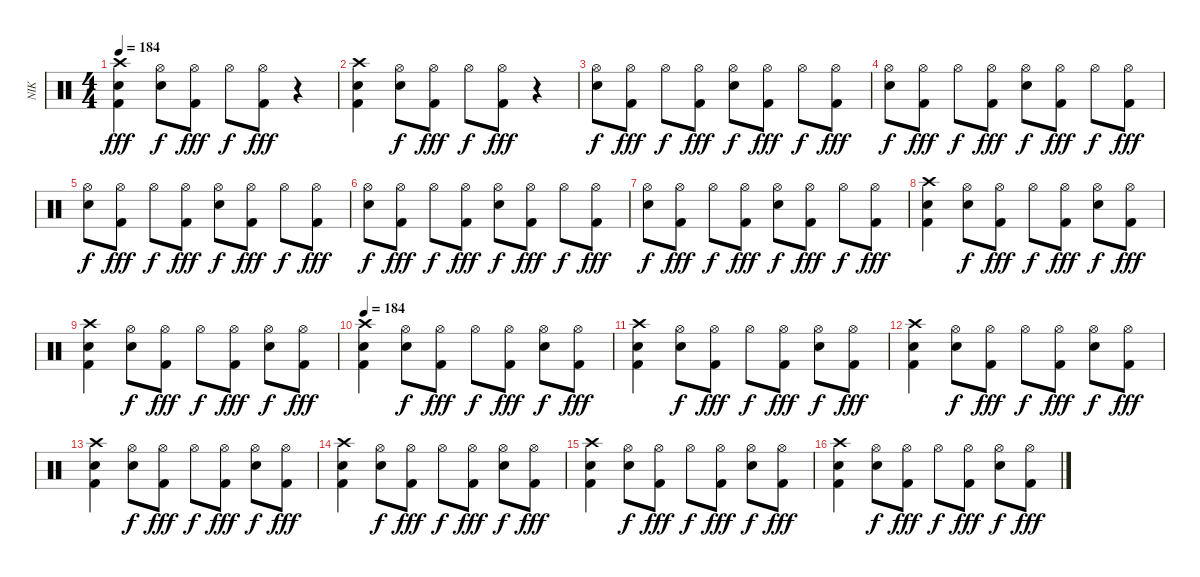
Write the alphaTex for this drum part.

\track ("NIK" "NIK") {instrument percussion}
\staff {score}
\articulation defaults
\ts (4 4)
\tempo 184
\clef neutral
\ks c
("Crash high (hit)" "Snare (hit) 2" "Kick (hit) 2").4{dy fff} ("Hi-Hat (open)" "Snare (hit) 2").8{dy f} ("Hi-Hat (open)" "Kick (hit) 2").8{dy fff} "Hi-Hat (open)".8{dy f} ("Hi-Hat (open)" "Kick (hit) 2").8{dy fff} r.4 |
("Crash high (hit)" "Snare (hit) 2" "Kick (hit) 2").4 ("Hi-Hat (open)" "Snare (hit) 2").8{dy f} ("Hi-Hat (open)" "Kick (hit) 2").8{dy fff} "Hi-Hat (open)".8{dy f} ("Hi-Hat (open)" "Kick (hit) 2").8{dy fff} r.4 |
("Hi-Hat (open)" "Snare (hit) 2").8{dy f} ("Hi-Hat (open)" "Kick (hit) 2").8{dy fff} "Hi-Hat (open)".8{dy f} ("Hi-Hat (open)" "Kick (hit) 2").8{dy fff} ("Hi-Hat (open)" "Snare (hit) 2").8{dy f} ("Hi-Hat (open)" "Kick (hit) 2").8{dy fff} "Hi-Hat (open)".8{dy f} ("Hi-Hat (open)" "Kick (hit) 2").8{dy fff} |
("Hi-Hat (open)" "Snare (hit) 2").8{dy f} ("Hi-Hat (open)" "Kick (hit) 2").8{dy fff} "Hi-Hat (open)".8{dy f} ("Hi-Hat (open)" "Kick (hit) 2").8{dy fff} ("Hi-Hat (open)" "Snare (hit) 2").8{dy f} ("Hi-Hat (open)" "Kick (hit) 2").8{dy fff} "Hi-Hat (open)".8{dy f} ("Hi-Hat (open)" "Kick (hit) 2").8{dy fff} |
("Hi-Hat (open)" "Snare (hit) 2").8{dy f} ("Hi-Hat (open)" "Kick (hit) 2").8{dy fff} "Hi-Hat (open)".8{dy f} ("Hi-Hat (open)" "Kick (hit) 2").8{dy fff} ("Hi-Hat (open)" "Snare (hit) 2").8{dy f} ("Hi-Hat (open)" "Kick (hit) 2").8{dy fff} "Hi-Hat (open)".8{dy f} ("Hi-Hat (open)" "Kick (hit) 2").8{dy fff} |
("Hi-Hat (open)" "Snare (hit) 2").8{dy f} ("Hi-Hat (open)" "Kick (hit) 2").8{dy fff} "Hi-Hat (open)".8{dy f} ("Hi-Hat (open)" "Kick (hit) 2").8{dy fff} ("Hi-Hat (open)" "Snare (hit) 2").8{dy f} ("Hi-Hat (open)" "Kick (hit) 2").8{dy fff} "Hi-Hat (open)".8{dy f} ("Hi-Hat (open)" "Kick (hit) 2").8{dy fff} |
("Hi-Hat (open)" "Snare (hit) 2").8{dy f} ("Hi-Hat (open)" "Kick (hit) 2").8{dy fff} "Hi-Hat (open)".8{dy f} ("Hi-Hat (open)" "Kick (hit) 2").8{dy fff} ("Hi-Hat (open)" "Snare (hit) 2").8{dy f} ("Hi-Hat (open)" "Kick (hit) 2").8{dy fff} "Hi-Hat (open)".8{dy f} ("Hi-Hat (open)" "Kick (hit) 2").8{dy fff} |
("Crash high (hit)" "Snare (hit) 2" "Kick (hit) 2").4 ("Hi-Hat (open)" "Snare (hit) 2").8{dy f} ("Hi-Hat (open)" "Kick (hit) 2").8{dy fff} "Hi-Hat (open)".8{dy f} ("Hi-Hat (open)" "Kick (hit) 2").8{dy fff} ("Hi-Hat (open)" "Snare (hit) 2").8{dy f} ("Hi-Hat (open)" "Kick (hit) 2").8{dy fff} |
("Crash high (hit)" "Snare (hit) 2" "Kick (hit) 2").4 ("Hi-Hat (open)" "Snare (hit) 2").8{dy f} ("Hi-Hat (open)" "Kick (hit) 2").8{dy fff} "Hi-Hat (open)".8{dy f} ("Hi-Hat (open)" "Kick (hit) 2").8{dy fff} ("Hi-Hat (open)" "Snare (hit) 2").8{dy f} ("Hi-Hat (open)" "Kick (hit) 2").8{dy fff} |
\tempo 184
("Crash high (hit)" "Snare (hit) 2" "Kick (hit) 2").4 ("Hi-Hat (open)" "Snare (hit) 2").8{dy f} ("Hi-Hat (open)" "Kick (hit) 2").8{dy fff} "Hi-Hat (open)".8{dy f} ("Hi-Hat (open)" "Kick (hit) 2").8{dy fff} ("Hi-Hat (open)" "Snare (hit) 2").8{dy f} ("Hi-Hat (open)" "Kick (hit) 2").8{dy fff} |
("Crash high (hit)" "Snare (hit) 2" "Kick (hit) 2").4 ("Hi-Hat (open)" "Snare (hit) 2").8{dy f} ("Hi-Hat (open)" "Kick (hit) 2").8{dy fff} "Hi-Hat (open)".8{dy f} ("Hi-Hat (open)" "Kick (hit) 2").8{dy fff} ("Hi-Hat (open)" "Snare (hit) 2").8{dy f} ("Hi-Hat (open)" "Kick (hit) 2").8{dy fff} |
("Crash high (hit)" "Snare (hit) 2" "Kick (hit) 2").4 ("Hi-Hat (open)" "Snare (hit) 2").8{dy f} ("Hi-Hat (open)" "Kick (hit) 2").8{dy fff} "Hi-Hat (open)".8{dy f} ("Hi-Hat (open)" "Kick (hit) 2").8{dy fff} ("Hi-Hat (open)" "Snare (hit) 2").8{dy f} ("Hi-Hat (open)" "Kick (hit) 2").8{dy fff} |
("Crash high (hit)" "Snare (hit) 2" "Kick (hit) 2").4 ("Hi-Hat (open)" "Snare (hit) 2").8{dy f} ("Hi-Hat (open)" "Kick (hit) 2").8{dy fff} "Hi-Hat (open)".8{dy f} ("Hi-Hat (open)" "Kick (hit) 2").8{dy fff} ("Hi-Hat (open)" "Snare (hit) 2").8{dy f} ("Hi-Hat (open)" "Kick (hit) 2").8{dy fff} |
("Crash high (hit)" "Snare (hit) 2" "Kick (hit) 2").4 ("Hi-Hat (open)" "Snare (hit) 2").8{dy f} ("Hi-Hat (open)" "Kick (hit) 2").8{dy fff} "Hi-Hat (open)".8{dy f} ("Hi-Hat (open)" "Kick (hit) 2").8{dy fff} ("Hi-Hat (open)" "Snare (hit) 2").8{dy f} ("Hi-Hat (open)" "Kick (hit) 2").8{dy fff} |
("Crash high (hit)" "Snare (hit) 2" "Kick (hit) 2").4 ("Hi-Hat (open)" "Snare (hit) 2").8{dy f} ("Hi-Hat (open)" "Kick (hit) 2").8{dy fff} "Hi-Hat (open)".8{dy f} ("Hi-Hat (open)" "Kick (hit) 2").8{dy fff} ("Hi-Hat (open)" "Snare (hit) 2").8{dy f} ("Hi-Hat (open)" "Kick (hit) 2").8{dy fff} |
("Crash high (hit)" "Snare (hit) 2" "Kick (hit) 2").4 ("Hi-Hat (open)" "Snare (hit) 2").8{dy f} ("Hi-Hat (open)" "Kick (hit) 2").8{dy fff} "Hi-Hat (open)".8{dy f} ("Hi-Hat (open)" "Kick (hit) 2").8{dy fff} ("Hi-Hat (open)" "Snare (hit) 2").8{dy f} ("Hi-Hat (open)" "Kick (hit) 2").8{dy fff}
